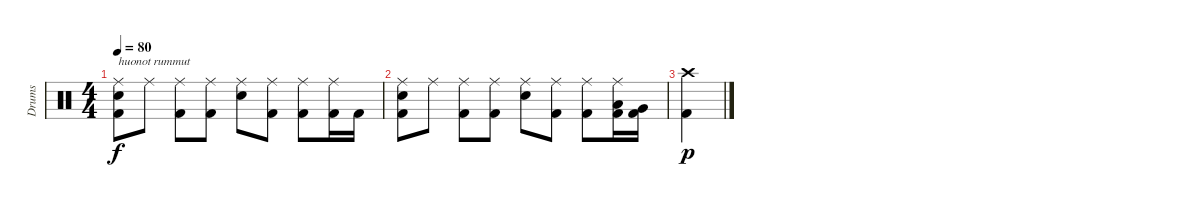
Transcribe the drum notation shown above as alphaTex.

\track ("Drums" "Drums") {instrument percussion}
\staff {score}
\articulation defaults
\ts (4 4)
\tempo 80
\clef neutral
\ks c
("Ride (middle)" "Snare (hit) 2" "Kick (hit) 2").8{txt "huonot rummut" dy f} "Ride (middle)".8 ("Ride (middle)" "Kick (hit) 2").8 ("Ride (middle)" "Kick (hit) 2").8 ("Ride (middle)" "Snare (hit) 2").8 ("Ride (middle)" "Kick (hit) 2").8 ("Ride (middle)" "Kick (hit) 2").8 ("Ride (middle)" "Kick (hit) 2").16 "Kick (hit) 2".16 |
("Ride (middle)" "Snare (hit) 2" "Kick (hit) 2").8 "Ride (middle)".8 ("Ride (middle)" "Kick (hit) 2").8 ("Ride (middle)" "Kick (hit) 2").8 ("Ride (middle)" "Snare (hit) 2").8 ("Ride (middle)" "Kick (hit) 2").8 ("Ride (middle)" "Kick (hit) 2").8 ("Ride (middle)" "Low Tom (hit)" "Kick (hit) 2").16 ("Very Low Tom (hit)" "Kick (hit) 2").16 |
("Crash high (hit)" "Kick (hit) 2").4{dy p}
